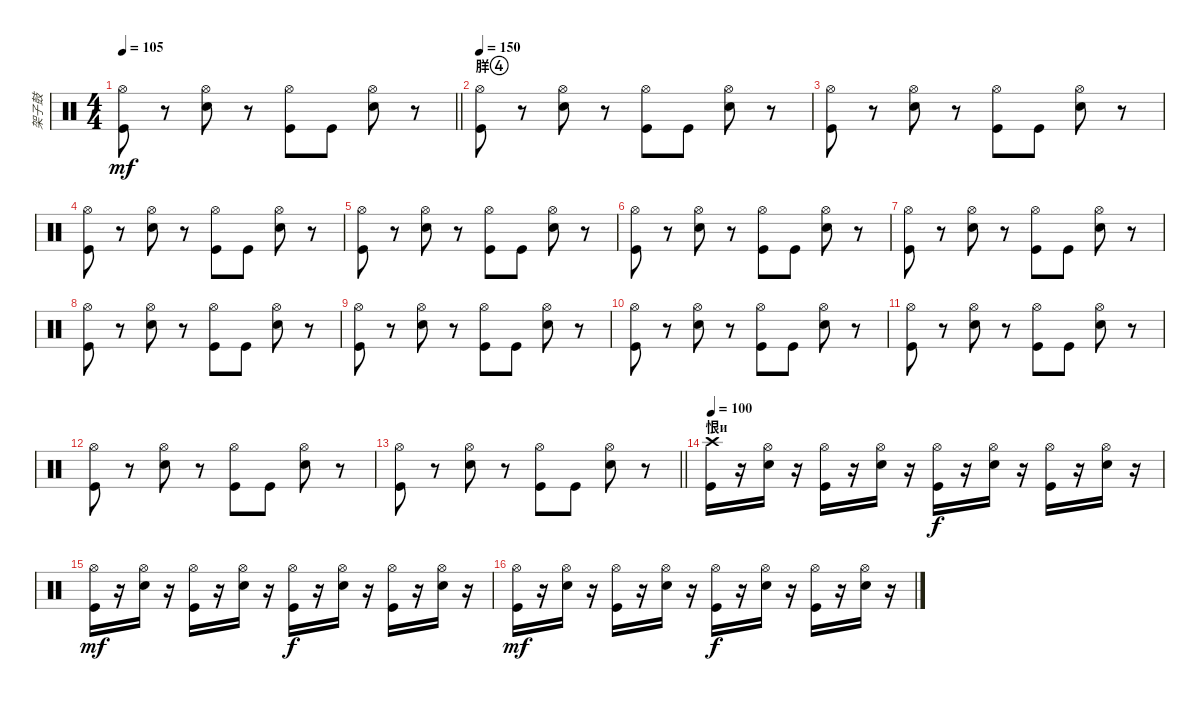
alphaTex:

\track ("架子鼓" "架子鼓") {instrument percussion}
\staff {score}
\articulation defaults
\ts (4 4)
\tempo 105
\clef neutral
\barLineRight lightlight
\ks c
("Hi-Hat (open)" "Kick (hit)").8{dy mf} r.8 ("Hi-Hat (open)" "Snare (hit) 2").8 r.8 ("Hi-Hat (open)" "Kick (hit)").8 "Kick (hit)".8 ("Hi-Hat (open)" "Snare (hit) 2").8 r.8 |
\section ("" "羘")
\tempo 150
("Hi-Hat (open)" "Kick (hit)").8 r.8 ("Hi-Hat (open)" "Snare (hit) 2").8 r.8 ("Hi-Hat (open)" "Kick (hit)").8 "Kick (hit)".8 ("Hi-Hat (open)" "Snare (hit) 2").8 r.8 |
("Hi-Hat (open)" "Kick (hit)").8 r.8 ("Hi-Hat (open)" "Snare (hit) 2").8 r.8 ("Hi-Hat (open)" "Kick (hit)").8 "Kick (hit)".8 ("Hi-Hat (open)" "Snare (hit) 2").8 r.8 |
("Hi-Hat (open)" "Kick (hit)").8 r.8 ("Hi-Hat (open)" "Snare (hit) 2").8 r.8 ("Hi-Hat (open)" "Kick (hit)").8 "Kick (hit)".8 ("Hi-Hat (open)" "Snare (hit) 2").8 r.8 |
("Hi-Hat (open)" "Kick (hit)").8 r.8 ("Hi-Hat (open)" "Snare (hit) 2").8 r.8 ("Hi-Hat (open)" "Kick (hit)").8 "Kick (hit)".8 ("Hi-Hat (open)" "Snare (hit) 2").8 r.8 |
("Hi-Hat (open)" "Kick (hit)").8 r.8 ("Hi-Hat (open)" "Snare (hit) 2").8 r.8 ("Hi-Hat (open)" "Kick (hit)").8 "Kick (hit)".8 ("Hi-Hat (open)" "Snare (hit) 2").8 r.8 |
("Hi-Hat (open)" "Kick (hit)").8 r.8 ("Hi-Hat (open)" "Snare (hit) 2").8 r.8 ("Hi-Hat (open)" "Kick (hit)").8 "Kick (hit)".8 ("Hi-Hat (open)" "Snare (hit) 2").8 r.8 |
("Hi-Hat (open)" "Kick (hit)").8 r.8 ("Hi-Hat (open)" "Snare (hit) 2").8 r.8 ("Hi-Hat (open)" "Kick (hit)").8 "Kick (hit)".8 ("Hi-Hat (open)" "Snare (hit) 2").8 r.8 |
("Hi-Hat (open)" "Kick (hit)").8 r.8 ("Hi-Hat (open)" "Snare (hit) 2").8 r.8 ("Hi-Hat (open)" "Kick (hit)").8 "Kick (hit)".8 ("Hi-Hat (open)" "Snare (hit) 2").8 r.8 |
("Hi-Hat (open)" "Kick (hit)").8 r.8 ("Hi-Hat (open)" "Snare (hit) 2").8 r.8 ("Hi-Hat (open)" "Kick (hit)").8 "Kick (hit)".8 ("Hi-Hat (open)" "Snare (hit) 2").8 r.8 |
("Hi-Hat (open)" "Kick (hit)").8 r.8 ("Hi-Hat (open)" "Snare (hit) 2").8 r.8 ("Hi-Hat (open)" "Kick (hit)").8 "Kick (hit)".8 ("Hi-Hat (open)" "Snare (hit) 2").8 r.8 |
("Hi-Hat (open)" "Kick (hit)").8 r.8 ("Hi-Hat (open)" "Snare (hit) 2").8 r.8 ("Hi-Hat (open)" "Kick (hit)").8 "Kick (hit)".8 ("Hi-Hat (open)" "Snare (hit) 2").8 r.8 |
\barLineRight lightlight
("Hi-Hat (open)" "Kick (hit)").8 r.8 ("Hi-Hat (open)" "Snare (hit) 2").8 r.8 ("Hi-Hat (open)" "Kick (hit)").8 "Kick (hit)".8 ("Hi-Hat (open)" "Snare (hit) 2").8 r.8 |
\section ("" "恨и")
\tempo 100
("Crash high (hit)" "Kick (hit)").16 r.16 ("Hi-Hat (open)" "Snare (hit) 2").16 r.16 ("Hi-Hat (open)" "Kick (hit)").16 r.16 ("Hi-Hat (open)" "Snare (hit) 2").16 r.16 ("Hi-Hat (open)" "Kick (hit)").16{dy f} r.16 ("Hi-Hat (open)" "Snare (hit) 2").16 r.16 ("Hi-Hat (open)" "Kick (hit)").16 r.16 ("Hi-Hat (open)" "Snare (hit) 2").16 r.16 |
("Hi-Hat (open)" "Kick (hit)").16{dy mf} r.16 ("Hi-Hat (open)" "Snare (hit) 2").16 r.16 ("Hi-Hat (open)" "Kick (hit)").16 r.16 ("Hi-Hat (open)" "Snare (hit) 2").16 r.16 ("Hi-Hat (open)" "Kick (hit)").16{dy f} r.16 ("Hi-Hat (open)" "Snare (hit) 2").16 r.16 ("Hi-Hat (open)" "Kick (hit)").16 r.16 ("Hi-Hat (open)" "Snare (hit) 2").16 r.16 |
("Hi-Hat (open)" "Kick (hit)").16{dy mf} r.16 ("Hi-Hat (open)" "Snare (hit) 2").16 r.16 ("Hi-Hat (open)" "Kick (hit)").16 r.16 ("Hi-Hat (open)" "Snare (hit) 2").16 r.16 ("Hi-Hat (open)" "Kick (hit)").16{dy f} r.16 ("Hi-Hat (open)" "Snare (hit) 2").16 r.16 ("Hi-Hat (open)" "Kick (hit)").16 r.16 ("Hi-Hat (open)" "Snare (hit) 2").16 r.16
